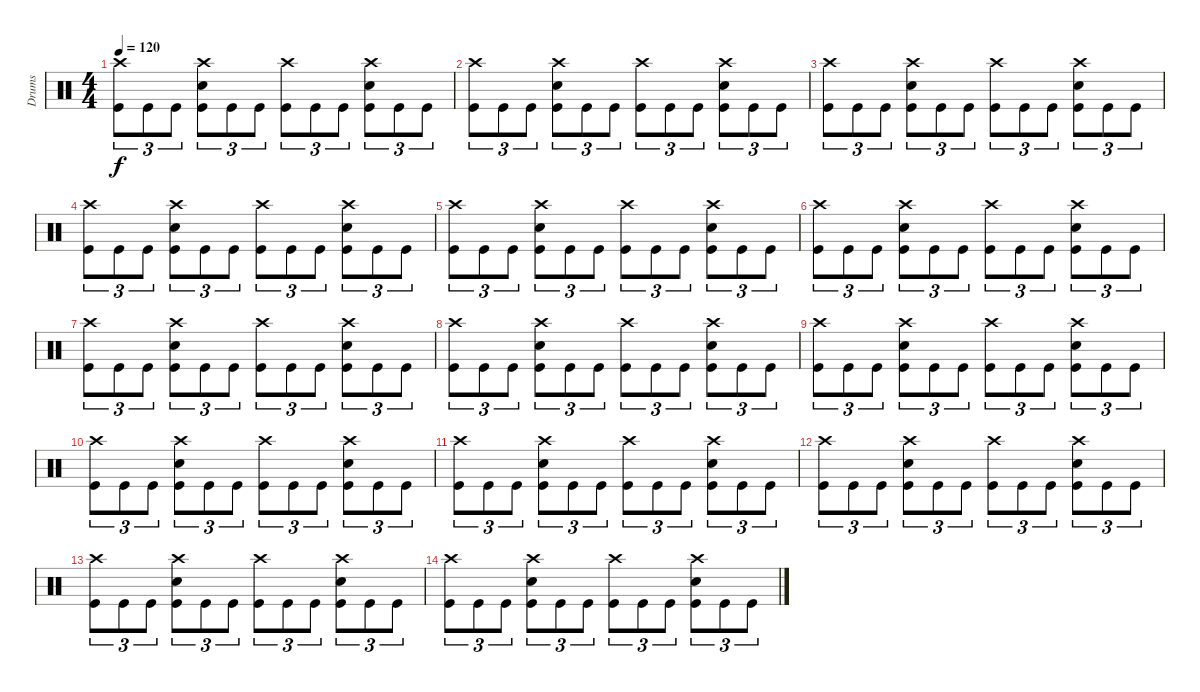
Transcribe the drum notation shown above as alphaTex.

\track ("Drums" "Drums") {instrument percussion}
\staff {score}
\articulation defaults
\ts (4 4)
\tempo 120
\clef neutral
\ks c
("Crash high (hit)" "Kick (hit)").8{tu (3 2) dy f} "Kick (hit)".8{tu (3 2)} "Kick (hit)".8{tu (3 2)} ("Crash high (hit)" "Snare (hit) 2" "Kick (hit)").8{tu (3 2)} "Kick (hit)".8{tu (3 2)} "Kick (hit)".8{tu (3 2)} ("Crash high (hit)" "Kick (hit)").8{tu (3 2)} "Kick (hit)".8{tu (3 2)} "Kick (hit)".8{tu (3 2)} ("Crash high (hit)" "Snare (hit) 2" "Kick (hit)").8{tu (3 2)} "Kick (hit)".8{tu (3 2)} "Kick (hit)".8{tu (3 2)} |
("Crash high (hit)" "Kick (hit)").8{tu (3 2)} "Kick (hit)".8{tu (3 2)} "Kick (hit)".8{tu (3 2)} ("Crash high (hit)" "Snare (hit) 2" "Kick (hit)").8{tu (3 2)} "Kick (hit)".8{tu (3 2)} "Kick (hit)".8{tu (3 2)} ("Crash high (hit)" "Kick (hit)").8{tu (3 2)} "Kick (hit)".8{tu (3 2)} "Kick (hit)".8{tu (3 2)} ("Crash high (hit)" "Snare (hit) 2" "Kick (hit)").8{tu (3 2)} "Kick (hit)".8{tu (3 2)} "Kick (hit)".8{tu (3 2)} |
("Crash high (hit)" "Kick (hit)").8{tu (3 2)} "Kick (hit)".8{tu (3 2)} "Kick (hit)".8{tu (3 2)} ("Crash high (hit)" "Snare (hit) 2" "Kick (hit)").8{tu (3 2)} "Kick (hit)".8{tu (3 2)} "Kick (hit)".8{tu (3 2)} ("Crash high (hit)" "Kick (hit)").8{tu (3 2)} "Kick (hit)".8{tu (3 2)} "Kick (hit)".8{tu (3 2)} ("Crash high (hit)" "Snare (hit) 2" "Kick (hit)").8{tu (3 2)} "Kick (hit)".8{tu (3 2)} "Kick (hit)".8{tu (3 2)} |
("Crash high (hit)" "Kick (hit)").8{tu (3 2)} "Kick (hit)".8{tu (3 2)} "Kick (hit)".8{tu (3 2)} ("Crash high (hit)" "Snare (hit) 2" "Kick (hit)").8{tu (3 2)} "Kick (hit)".8{tu (3 2)} "Kick (hit)".8{tu (3 2)} ("Crash high (hit)" "Kick (hit)").8{tu (3 2)} "Kick (hit)".8{tu (3 2)} "Kick (hit)".8{tu (3 2)} ("Crash high (hit)" "Snare (hit) 2" "Kick (hit)").8{tu (3 2)} "Kick (hit)".8{tu (3 2)} "Kick (hit)".8{tu (3 2)} |
("Crash high (hit)" "Kick (hit)").8{tu (3 2)} "Kick (hit)".8{tu (3 2)} "Kick (hit)".8{tu (3 2)} ("Crash high (hit)" "Snare (hit) 2" "Kick (hit)").8{tu (3 2)} "Kick (hit)".8{tu (3 2)} "Kick (hit)".8{tu (3 2)} ("Crash high (hit)" "Kick (hit)").8{tu (3 2)} "Kick (hit)".8{tu (3 2)} "Kick (hit)".8{tu (3 2)} ("Crash high (hit)" "Snare (hit) 2" "Kick (hit)").8{tu (3 2)} "Kick (hit)".8{tu (3 2)} "Kick (hit)".8{tu (3 2)} |
("Crash high (hit)" "Kick (hit)").8{tu (3 2)} "Kick (hit)".8{tu (3 2)} "Kick (hit)".8{tu (3 2)} ("Crash high (hit)" "Snare (hit) 2" "Kick (hit)").8{tu (3 2)} "Kick (hit)".8{tu (3 2)} "Kick (hit)".8{tu (3 2)} ("Crash high (hit)" "Kick (hit)").8{tu (3 2)} "Kick (hit)".8{tu (3 2)} "Kick (hit)".8{tu (3 2)} ("Crash high (hit)" "Snare (hit) 2" "Kick (hit)").8{tu (3 2)} "Kick (hit)".8{tu (3 2)} "Kick (hit)".8{tu (3 2)} |
("Crash high (hit)" "Kick (hit)").8{tu (3 2)} "Kick (hit)".8{tu (3 2)} "Kick (hit)".8{tu (3 2)} ("Crash high (hit)" "Snare (hit) 2" "Kick (hit)").8{tu (3 2)} "Kick (hit)".8{tu (3 2)} "Kick (hit)".8{tu (3 2)} ("Crash high (hit)" "Kick (hit)").8{tu (3 2)} "Kick (hit)".8{tu (3 2)} "Kick (hit)".8{tu (3 2)} ("Crash high (hit)" "Snare (hit) 2" "Kick (hit)").8{tu (3 2)} "Kick (hit)".8{tu (3 2)} "Kick (hit)".8{tu (3 2)} |
("Crash high (hit)" "Kick (hit)").8{tu (3 2)} "Kick (hit)".8{tu (3 2)} "Kick (hit)".8{tu (3 2)} ("Crash high (hit)" "Snare (hit) 2" "Kick (hit)").8{tu (3 2)} "Kick (hit)".8{tu (3 2)} "Kick (hit)".8{tu (3 2)} ("Crash high (hit)" "Kick (hit)").8{tu (3 2)} "Kick (hit)".8{tu (3 2)} "Kick (hit)".8{tu (3 2)} ("Crash high (hit)" "Snare (hit) 2" "Kick (hit)").8{tu (3 2)} "Kick (hit)".8{tu (3 2)} "Kick (hit)".8{tu (3 2)} |
("Crash high (hit)" "Kick (hit)").8{tu (3 2) volume 0} "Kick (hit)".8{tu (3 2)} "Kick (hit)".8{tu (3 2)} ("Crash high (hit)" "Snare (hit) 2" "Kick (hit)").8{tu (3 2)} "Kick (hit)".8{tu (3 2)} "Kick (hit)".8{tu (3 2)} ("Crash high (hit)" "Kick (hit)").8{tu (3 2)} "Kick (hit)".8{tu (3 2)} "Kick (hit)".8{tu (3 2)} ("Crash high (hit)" "Snare (hit) 2" "Kick (hit)").8{tu (3 2)} "Kick (hit)".8{tu (3 2)} "Kick (hit)".8{tu (3 2)} |
("Crash high (hit)" "Kick (hit)").8{tu (3 2)} "Kick (hit)".8{tu (3 2)} "Kick (hit)".8{tu (3 2)} ("Crash high (hit)" "Snare (hit) 2" "Kick (hit)").8{tu (3 2)} "Kick (hit)".8{tu (3 2)} "Kick (hit)".8{tu (3 2)} ("Crash high (hit)" "Kick (hit)").8{tu (3 2)} "Kick (hit)".8{tu (3 2)} "Kick (hit)".8{tu (3 2)} ("Crash high (hit)" "Snare (hit) 2" "Kick (hit)").8{tu (3 2)} "Kick (hit)".8{tu (3 2)} "Kick (hit)".8{tu (3 2)} |
("Crash high (hit)" "Kick (hit)").8{tu (3 2)} "Kick (hit)".8{tu (3 2)} "Kick (hit)".8{tu (3 2)} ("Crash high (hit)" "Snare (hit) 2" "Kick (hit)").8{tu (3 2)} "Kick (hit)".8{tu (3 2)} "Kick (hit)".8{tu (3 2)} ("Crash high (hit)" "Kick (hit)").8{tu (3 2)} "Kick (hit)".8{tu (3 2)} "Kick (hit)".8{tu (3 2)} ("Crash high (hit)" "Snare (hit) 2" "Kick (hit)").8{tu (3 2)} "Kick (hit)".8{tu (3 2)} "Kick (hit)".8{tu (3 2)} |
("Crash high (hit)" "Kick (hit)").8{tu (3 2)} "Kick (hit)".8{tu (3 2)} "Kick (hit)".8{tu (3 2)} ("Crash high (hit)" "Snare (hit) 2" "Kick (hit)").8{tu (3 2)} "Kick (hit)".8{tu (3 2)} "Kick (hit)".8{tu (3 2)} ("Crash high (hit)" "Kick (hit)").8{tu (3 2)} "Kick (hit)".8{tu (3 2)} "Kick (hit)".8{tu (3 2)} ("Crash high (hit)" "Snare (hit) 2" "Kick (hit)").8{tu (3 2)} "Kick (hit)".8{tu (3 2)} "Kick (hit)".8{tu (3 2)} |
("Crash high (hit)" "Kick (hit)").8{tu (3 2)} "Kick (hit)".8{tu (3 2)} "Kick (hit)".8{tu (3 2)} ("Crash high (hit)" "Snare (hit) 2" "Kick (hit)").8{tu (3 2)} "Kick (hit)".8{tu (3 2)} "Kick (hit)".8{tu (3 2)} ("Crash high (hit)" "Kick (hit)").8{tu (3 2)} "Kick (hit)".8{tu (3 2)} "Kick (hit)".8{tu (3 2)} ("Crash high (hit)" "Snare (hit) 2" "Kick (hit)").8{tu (3 2)} "Kick (hit)".8{tu (3 2)} "Kick (hit)".8{tu (3 2)} |
("Crash high (hit)" "Kick (hit)").8{tu (3 2)} "Kick (hit)".8{tu (3 2)} "Kick (hit)".8{tu (3 2)} ("Crash high (hit)" "Snare (hit) 2" "Kick (hit)").8{tu (3 2)} "Kick (hit)".8{tu (3 2)} "Kick (hit)".8{tu (3 2)} ("Crash high (hit)" "Kick (hit)").8{tu (3 2)} "Kick (hit)".8{tu (3 2)} "Kick (hit)".8{tu (3 2)} ("Crash high (hit)" "Snare (hit) 2" "Kick (hit)").8{tu (3 2)} "Kick (hit)".8{tu (3 2)} "Kick (hit)".8{tu (3 2)}
